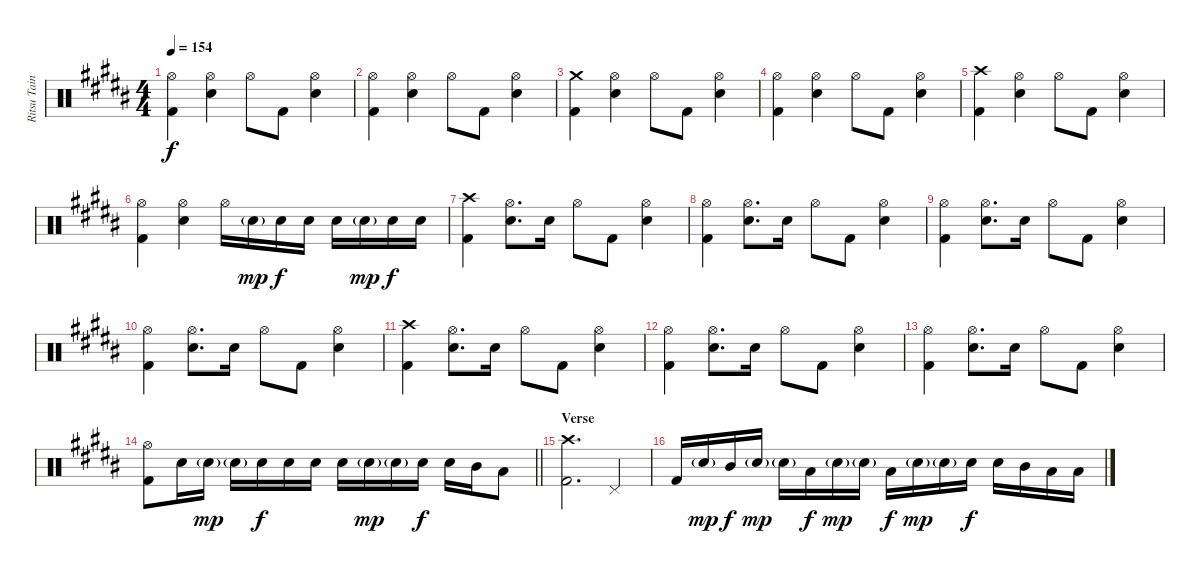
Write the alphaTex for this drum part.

\track ("Ritsu Tainaka" "Ritsu Tain") {instrument percussion}
\staff {score}
\articulation defaults
\ts (4 4)
\tempo 154
\clef neutral
\ks b
("Hi-Hat (open)" "Kick (hit) 2").4{dy f} ("Hi-Hat (open)" "Snare (hit) 2").4 "Hi-Hat (open)".8 "Kick (hit) 2".8 ("Hi-Hat (open)" "Snare (hit) 2").4 |
("Hi-Hat (open)" "Kick (hit) 2").4 ("Hi-Hat (open)" "Snare (hit) 2").4 "Hi-Hat (open)".8 "Kick (hit) 2".8 ("Hi-Hat (open)" "Snare (hit) 2").4 |
("Crash medium (hit)" "Kick (hit) 2").4 ("Hi-Hat (open)" "Snare (hit) 2").4 "Hi-Hat (open)".8 "Kick (hit) 2".8 ("Hi-Hat (open)" "Snare (hit) 2").4 |
("Hi-Hat (open)" "Kick (hit) 2").4 ("Hi-Hat (open)" "Snare (hit) 2").4 "Hi-Hat (open)".8 "Kick (hit) 2".8 ("Hi-Hat (open)" "Snare (hit) 2").4 |
("Crash high (hit)" "Kick (hit) 2").4 ("Hi-Hat (open)" "Snare (hit) 2").4 "Hi-Hat (open)".8 "Kick (hit) 2".8 ("Hi-Hat (open)" "Snare (hit) 2").4 |
("Hi-Hat (open)" "Kick (hit) 2").4 ("Hi-Hat (open)" "Snare (hit) 2").4 "Hi-Hat (open)".16 "Snare (hit) 2"{g}.16{dy mp} "Snare (hit) 2".16{dy f} "Snare (hit) 2".16 "Snare (hit) 2".16 "Snare (hit) 2"{g}.16{dy mp} "Snare (hit) 2".16{dy f} "Snare (hit) 2".16 |
("Crash high (hit)" "Kick (hit) 2").4 ("Hi-Hat (open)" "Snare (hit) 2").8{d} "Snare (hit) 2".16 "Hi-Hat (open)".8 "Kick (hit) 2".8 ("Hi-Hat (open)" "Snare (hit) 2").4 |
("Hi-Hat (open)" "Kick (hit) 2").4 ("Hi-Hat (open)" "Snare (hit) 2").8{d} "Snare (hit) 2".16 "Hi-Hat (open)".8 "Kick (hit) 2".8 ("Hi-Hat (open)" "Snare (hit) 2").4 |
("Hi-Hat (open)" "Kick (hit) 2").4 ("Hi-Hat (open)" "Snare (hit) 2").8{d} "Snare (hit) 2".16 "Hi-Hat (open)".8 "Kick (hit) 2".8 ("Hi-Hat (open)" "Snare (hit) 2").4 |
("Hi-Hat (open)" "Kick (hit) 2").4 ("Hi-Hat (open)" "Snare (hit) 2").8{d} "Snare (hit) 2".16 "Hi-Hat (open)".8 "Kick (hit) 2".8 ("Hi-Hat (open)" "Snare (hit) 2").4 |
("Crash high (hit)" "Kick (hit) 2").4 ("Hi-Hat (open)" "Snare (hit) 2").8{d} "Snare (hit) 2".16 "Hi-Hat (open)".8 "Kick (hit) 2".8 ("Hi-Hat (open)" "Snare (hit) 2").4 |
("Hi-Hat (open)" "Kick (hit) 2").4 ("Hi-Hat (open)" "Snare (hit) 2").8{d} "Snare (hit) 2".16 "Hi-Hat (open)".8 "Kick (hit) 2".8 ("Hi-Hat (open)" "Snare (hit) 2").4 |
("Hi-Hat (open)" "Kick (hit) 2").4 ("Hi-Hat (open)" "Snare (hit) 2").8{d} "Snare (hit) 2".16 "Hi-Hat (open)".8 "Kick (hit) 2".8 ("Hi-Hat (open)" "Snare (hit) 2").4 |
\barLineRight lightlight
("Hi-Hat (open)" "Kick (hit) 2").8 "Snare (hit) 2".16 "Snare (hit) 2"{g}.16{dy mp} "Snare (hit)"{g}.16 "Snare (hit) 2".16{dy f} "Snare (hit) 2".16 "Snare (hit) 2".16 "Snare (hit) 2".16 "Snare (hit) 2"{g}.16{dy mp} "Snare (hit) 2"{g}.16 "Snare (hit) 2".16{dy f} "Snare (hit) 2".16 "Mid Tom (hit)".16 "Low Tom (hit)".8 |
\section ("" "Verse")
("Crash high (hit)" "Kick (hit) 2").2{d} "Pedal Hi-Hat (hit)".4 |
"Kick (hit) 2".16 "Snare (hit) 2"{g}.16{dy mp} "Mid Tom (hit)".16{dy f} "Snare (hit) 2"{g}.16{dy mp} "Snare (hit) 2"{g}.16 "Low Tom (hit)".16{dy f} "Snare (hit) 2"{g}.16{dy mp} "Snare (hit) 2"{g}.16 "Low Floor Tom (hit)".16{dy f} "Snare (hit) 2"{g}.16{dy mp} "Snare (hit) 2"{g}.16 "Snare (hit) 2".16{dy f} "Snare (hit) 2".16 "Mid Tom (hit)".16 "Low Tom (hit)".16 "Low Floor Tom (hit)".16
